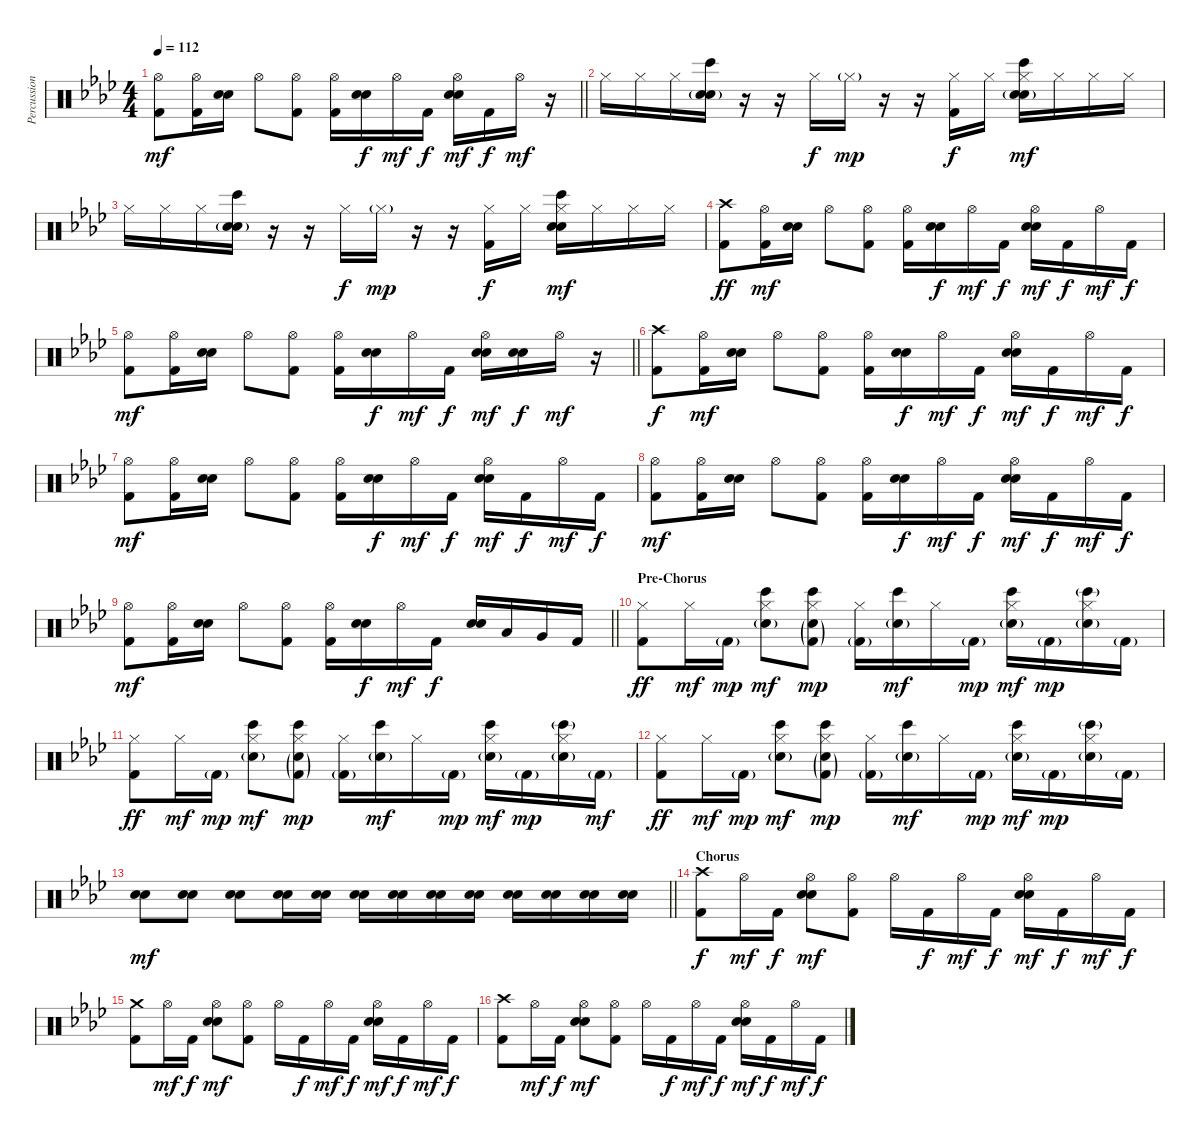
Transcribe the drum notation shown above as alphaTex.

\track ("Percussion" "Percussion") {instrument percussion}
\staff {score}
\articulation defaults
\ts (4 4)
\tempo 112
\clef neutral
\barLineRight lightlight
\ks ab
("Hi-Hat (open)" "Kick (hit) 2").8{dy mf} ("Hi-Hat (open)" "Kick (hit) 2").16 ("Electric Snare (hit)" "Snare (hit) 2").16 "Hi-Hat (open)".8 ("Hi-Hat (open)" "Kick (hit) 2").8 ("Hi-Hat (open)" "Kick (hit) 2").16 ("Electric Snare (hit)" "Snare (hit) 2").16{dy f} "Hi-Hat (open)".16{dy mf} "Kick (hit) 2".16{dy f} ("Hi-Hat (open)" "Electric Snare (hit)" "Snare (hit) 2").16{dy mf} "Kick (hit) 2".16{dy f} "Hi-Hat (open)".16{dy mf} r.16 |
"Hi-Hat (closed)".16 "Hi-Hat (closed)".16 "Hi-Hat (closed)".16 ("Bongo High (hit)" "Electric Snare (hit)"{g} "Snare (hit) 2").16 r.16 r.16 "Hi-Hat (closed)".16{dy f} "Hi-Hat (closed)"{g}.16{dy mp} r.16 r.16 ("Hi-Hat (closed)" "Kick (hit) 2").16{dy f} "Hi-Hat (closed)".16 ("Hi-Hat (closed)" "Bongo High (hit)" "Electric Snare (hit)"{g} "Snare (hit) 2").16{dy mf} "Hi-Hat (closed)".16 "Hi-Hat (closed)".16 "Hi-Hat (closed)".16 |
"Hi-Hat (closed)".16 "Hi-Hat (closed)".16 "Hi-Hat (closed)".16 ("Bongo High (hit)" "Electric Snare (hit)"{g} "Snare (hit) 2").16 r.16 r.16 "Hi-Hat (closed)".16{dy f} "Hi-Hat (closed)"{g}.16{dy mp} r.16 r.16 ("Hi-Hat (closed)" "Kick (hit) 2").16{dy f} "Hi-Hat (closed)".16 ("Hi-Hat (closed)" "Bongo High (hit)" "Electric Snare (hit)" "Snare (hit) 2").16{dy mf} "Hi-Hat (closed)".16 "Hi-Hat (closed)".16 "Hi-Hat (closed)".16 |
("Crash high (hit)" "Kick (hit) 2").8{dy ff} ("Hi-Hat (open)" "Kick (hit) 2").16{dy mf} ("Electric Snare (hit)" "Snare (hit) 2").16 "Hi-Hat (open)".8 ("Hi-Hat (open)" "Kick (hit) 2").8 ("Hi-Hat (open)" "Kick (hit) 2").16 ("Electric Snare (hit)" "Snare (hit) 2").16{dy f} "Hi-Hat (open)".16{dy mf} "Kick (hit) 2".16{dy f} ("Hi-Hat (open)" "Electric Snare (hit)" "Snare (hit) 2").16{dy mf} "Kick (hit) 2".16{dy f} "Hi-Hat (open)".16{dy mf} "Kick (hit) 2".16{dy f} |
\barLineRight lightlight
("Hi-Hat (open)" "Kick (hit) 2").8{dy mf} ("Hi-Hat (open)" "Kick (hit) 2").16 ("Electric Snare (hit)" "Snare (hit) 2").16 "Hi-Hat (open)".8 ("Hi-Hat (open)" "Kick (hit) 2").8 ("Hi-Hat (open)" "Kick (hit) 2").16 ("Electric Snare (hit)" "Snare (hit) 2").16{dy f} "Hi-Hat (open)".16{dy mf} "Kick (hit) 2".16{dy f} ("Hi-Hat (open)" "Electric Snare (hit)" "Snare (hit) 2").16{dy mf} ("Electric Snare (hit)" "Snare (hit) 2").16{dy f} "Hi-Hat (open)".16{dy mf} r.16 |
("Crash high (hit)" "Kick (hit) 2").8{dy f} ("Hi-Hat (open)" "Kick (hit) 2").16{dy mf} ("Electric Snare (hit)" "Snare (hit) 2").16 "Hi-Hat (open)".8 ("Hi-Hat (open)" "Kick (hit) 2").8 ("Hi-Hat (open)" "Kick (hit) 2").16 ("Electric Snare (hit)" "Snare (hit) 2").16{dy f} "Hi-Hat (open)".16{dy mf} "Kick (hit) 2".16{dy f} ("Hi-Hat (open)" "Electric Snare (hit)" "Snare (hit) 2").16{dy mf} "Kick (hit) 2".16{dy f} "Hi-Hat (open)".16{dy mf} "Kick (hit) 2".16{dy f} |
("Hi-Hat (open)" "Kick (hit) 2").8{dy mf} ("Hi-Hat (open)" "Kick (hit) 2").16 ("Electric Snare (hit)" "Snare (hit) 2").16 "Hi-Hat (open)".8 ("Hi-Hat (open)" "Kick (hit) 2").8 ("Hi-Hat (open)" "Kick (hit) 2").16 ("Electric Snare (hit)" "Snare (hit) 2").16{dy f} "Hi-Hat (open)".16{dy mf} "Kick (hit) 2".16{dy f} ("Hi-Hat (open)" "Electric Snare (hit)" "Snare (hit) 2").16{dy mf} "Kick (hit) 2".16{dy f} "Hi-Hat (open)".16{dy mf} "Kick (hit) 2".16{dy f} |
("Hi-Hat (open)" "Kick (hit) 2").8{dy mf} ("Hi-Hat (open)" "Kick (hit) 2").16 ("Electric Snare (hit)" "Snare (hit) 2").16 "Hi-Hat (open)".8 ("Hi-Hat (open)" "Kick (hit) 2").8 ("Hi-Hat (open)" "Kick (hit) 2").16 ("Electric Snare (hit)" "Snare (hit) 2").16{dy f} "Hi-Hat (open)".16{dy mf} "Kick (hit) 2".16{dy f} ("Hi-Hat (open)" "Electric Snare (hit)" "Snare (hit) 2").16{dy mf} "Kick (hit) 2".16{dy f} "Hi-Hat (open)".16{dy mf} "Kick (hit) 2".16{dy f} |
\barLineRight lightlight
("Hi-Hat (open)" "Kick (hit) 2").8{dy mf} ("Hi-Hat (open)" "Kick (hit) 2").16 ("Electric Snare (hit)" "Snare (hit) 2").16 "Hi-Hat (open)".8 ("Hi-Hat (open)" "Kick (hit) 2").8 ("Hi-Hat (open)" "Kick (hit) 2").16 ("Electric Snare (hit)" "Snare (hit) 2").16{dy f} "Hi-Hat (open)".16{dy mf} "Kick (hit) 2".16{dy f} ("Electric Snare (hit)" "Snare (hit) 2").16 "Low Tom (hit)".16 "Very Low Tom (hit)".16 "Kick (hit) 2".16 |
\section ("" "Pre-Chorus")
("Hi-Hat (closed)" "Kick (hit) 2").8{dy ff} "Hi-Hat (closed)".16{dy mf} "Kick (hit) 2"{g}.16{dy mp} ("Hi-Hat (closed)" "Snare (hit) 2"{g} "Bongo High (hit)").8{dy mf} ("Hi-Hat (closed)" "Snare (hit) 2"{g} "Bongo High (hit)" "Kick (hit) 2"{g}).8{dy mp} ("Hi-Hat (closed)" "Kick (hit) 2"{g}).16 ("Snare (hit) 2"{g} "Bongo High (hit)").16{dy mf} "Hi-Hat (closed)".16 "Kick (hit) 2"{g}.16{dy mp} ("Hi-Hat (closed)" "Snare (hit) 2"{g} "Bongo High (hit)").16{dy mf} "Kick (hit) 2"{g}.16{dy mp} ("Hi-Hat (closed)" "Snare (hit) 2"{g} "Bongo High (hit)"{g}).16 "Kick (hit) 2"{g}.16 |
("Hi-Hat (closed)" "Kick (hit) 2").8{dy ff} "Hi-Hat (closed)".16{dy mf} "Kick (hit) 2"{g}.16{dy mp} ("Hi-Hat (closed)" "Snare (hit) 2"{g} "Bongo High (hit)").8{dy mf} ("Hi-Hat (closed)" "Snare (hit) 2"{g} "Bongo High (hit)" "Kick (hit) 2"{g}).8{dy mp} ("Hi-Hat (closed)" "Kick (hit) 2"{g}).16 ("Snare (hit) 2"{g} "Bongo High (hit)").16{dy mf} "Hi-Hat (closed)".16 "Kick (hit) 2"{g}.16{dy mp} ("Hi-Hat (closed)" "Snare (hit) 2"{g} "Bongo High (hit)").16{dy mf} "Kick (hit) 2"{g}.16{dy mp} ("Hi-Hat (closed)" "Snare (hit) 2"{g} "Bongo High (hit)"{g}).16 "Kick (hit) 2"{g}.16{dy mf} |
("Hi-Hat (closed)" "Kick (hit) 2").8{dy ff} "Hi-Hat (closed)".16{dy mf} "Kick (hit) 2"{g}.16{dy mp} ("Hi-Hat (closed)" "Snare (hit) 2"{g} "Bongo High (hit)").8{dy mf} ("Hi-Hat (closed)" "Snare (hit) 2"{g} "Bongo High (hit)" "Kick (hit) 2"{g}).8{dy mp} ("Hi-Hat (closed)" "Kick (hit) 2"{g}).16 ("Snare (hit) 2"{g} "Bongo High (hit)").16{dy mf} "Hi-Hat (closed)".16 "Kick (hit) 2"{g}.16{dy mp} ("Hi-Hat (closed)" "Snare (hit) 2"{g} "Bongo High (hit)").16{dy mf} "Kick (hit) 2"{g}.16{dy mp} ("Hi-Hat (closed)" "Snare (hit) 2"{g} "Bongo High (hit)"{g}).16 "Kick (hit) 2"{g}.16 |
\barLineRight lightlight
("Electric Snare (hit)" "Snare (hit) 2").8{dy mf} ("Electric Snare (hit)" "Snare (hit) 2").8 ("Electric Snare (hit)" "Snare (hit) 2").8 ("Electric Snare (hit)" "Snare (hit) 2").16 ("Electric Snare (hit)" "Snare (hit) 2").16 ("Electric Snare (hit)" "Snare (hit) 2").16 ("Electric Snare (hit)" "Snare (hit) 2").16 ("Electric Snare (hit)" "Snare (hit) 2").16 ("Electric Snare (hit)" "Snare (hit) 2").16 ("Electric Snare (hit)" "Snare (hit) 2").16 ("Electric Snare (hit)" "Snare (hit) 2").16 ("Electric Snare (hit)" "Snare (hit) 2").16 ("Electric Snare (hit)" "Snare (hit) 2").16 |
\section ("" "Chorus")
("Crash high (hit)" "Kick (hit) 2").8{dy f} "Hi-Hat (open)".16{dy mf} "Kick (hit) 2".16{dy f} ("Hi-Hat (open)" "Electric Snare (hit)" "Snare (hit) 2").8{dy mf} ("Hi-Hat (open)" "Kick (hit) 2").8 "Hi-Hat (open)".16 "Kick (hit) 2".16{dy f} "Hi-Hat (open)".16{dy mf} "Kick (hit) 2".16{dy f} ("Hi-Hat (open)" "Electric Snare (hit)" "Snare (hit) 2").16{dy mf} "Kick (hit) 2".16{dy f} "Hi-Hat (open)".16{dy mf} "Kick (hit) 2".16{dy f} |
("Crash medium (hit)" "Kick (hit) 2").8 "Hi-Hat (open)".16{dy mf} "Kick (hit) 2".16{dy f} ("Hi-Hat (open)" "Electric Snare (hit)" "Snare (hit) 2").8{dy mf} ("Hi-Hat (open)" "Kick (hit) 2").8 "Hi-Hat (open)".16 "Kick (hit) 2".16{dy f} "Hi-Hat (open)".16{dy mf} "Kick (hit) 2".16{dy f} ("Hi-Hat (open)" "Electric Snare (hit)" "Snare (hit) 2").16{dy mf} "Kick (hit) 2".16{dy f} "Hi-Hat (open)".16{dy mf} "Kick (hit) 2".16{dy f} |
("Crash high (hit)" "Kick (hit) 2").8 "Hi-Hat (open)".16{dy mf} "Kick (hit) 2".16{dy f} ("Hi-Hat (open)" "Electric Snare (hit)" "Snare (hit) 2").8{dy mf} ("Hi-Hat (open)" "Kick (hit) 2").8 "Hi-Hat (open)".16 "Kick (hit) 2".16{dy f} "Hi-Hat (open)".16{dy mf} "Kick (hit) 2".16{dy f} ("Hi-Hat (open)" "Electric Snare (hit)" "Snare (hit) 2").16{dy mf} "Kick (hit) 2".16{dy f} "Hi-Hat (open)".16{dy mf} "Kick (hit) 2".16{dy f}
